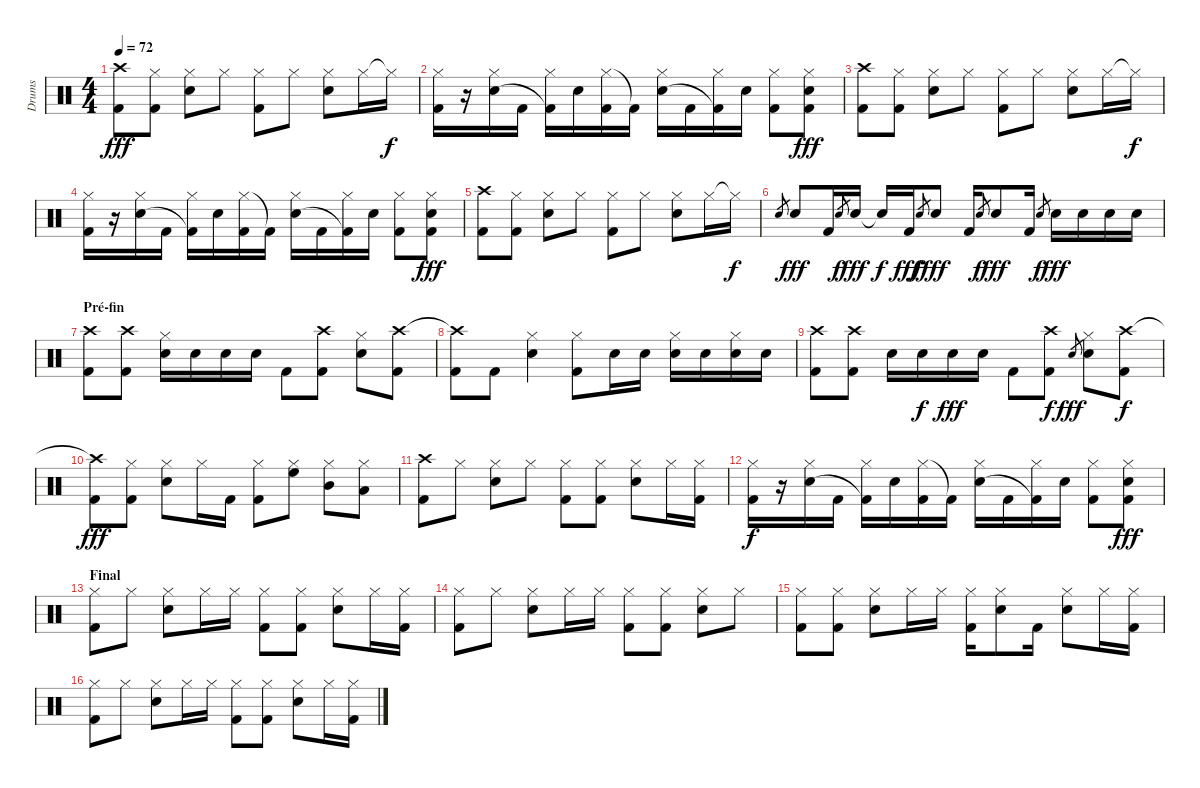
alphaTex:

\track ("Drums" "Drums") {instrument percussion}
\staff {score}
\articulation defaults
\ts (4 4)
\tempo 72
\clef neutral
\ks c
("Crash high (hit)" "Kick (hit) 2").8{dy fff} ("Hi-Hat (closed)" "Kick (hit) 2").8 ("Hi-Hat (closed)" "Snare (hit) 2").8 "Hi-Hat (closed)".8 ("Hi-Hat (closed)" "Kick (hit) 2").8 "Hi-Hat (closed)".8 ("Hi-Hat (closed)" "Snare (hit) 2").8 "Hi-Hat (closed)".16 "Hi-Hat (closed)"{t}.16{dy f} |
("Hi-Hat (closed)" "Kick (hit) 2").16 r.16 ("Hi-Hat (closed)" "Snare (hit) 2").16 "Kick (hit) 2".16 ("Hi-Hat (closed)" "Kick (hit) 2"{t}).16 "Snare (hit) 2".16 ("Hi-Hat (closed)" "Kick (hit) 2").16 "Kick (hit) 2"{t}.16 ("Hi-Hat (closed)" "Snare (hit) 2").16 "Kick (hit) 2".16 ("Hi-Hat (closed)" "Kick (hit) 2"{t}).16 "Snare (hit) 2".16 ("Hi-Hat (closed)" "Kick (hit) 2").8 ("Hi-Hat (closed)" "Snare (hit) 2" "Kick (hit) 2").8{dy fff} |
("Crash high (hit)" "Kick (hit) 2").8 ("Hi-Hat (closed)" "Kick (hit) 2").8 ("Hi-Hat (closed)" "Snare (hit) 2").8 "Hi-Hat (closed)".8 ("Hi-Hat (closed)" "Kick (hit) 2").8 "Hi-Hat (closed)".8 ("Hi-Hat (closed)" "Snare (hit) 2").8 "Hi-Hat (closed)".16 "Hi-Hat (closed)"{t}.16{dy f} |
("Hi-Hat (closed)" "Kick (hit) 2").16 r.16 ("Hi-Hat (closed)" "Snare (hit) 2").16 "Kick (hit) 2".16 ("Hi-Hat (closed)" "Kick (hit) 2"{t}).16 "Snare (hit) 2".16 ("Hi-Hat (closed)" "Kick (hit) 2").16 "Kick (hit) 2"{t}.16 ("Hi-Hat (closed)" "Snare (hit) 2").16 "Kick (hit) 2".16 ("Hi-Hat (closed)" "Kick (hit) 2"{t}).16 "Snare (hit) 2".16 ("Hi-Hat (closed)" "Kick (hit) 2").8 ("Hi-Hat (closed)" "Snare (hit) 2" "Kick (hit) 2").8{dy fff} |
("Crash high (hit)" "Kick (hit) 2").8 ("Hi-Hat (closed)" "Kick (hit) 2").8 ("Hi-Hat (closed)" "Snare (hit) 2").8 "Hi-Hat (closed)".8 ("Hi-Hat (closed)" "Kick (hit) 2").8 "Hi-Hat (closed)".8 ("Hi-Hat (closed)" "Snare (hit) 2").8 "Hi-Hat (closed)".16 "Hi-Hat (closed)"{t}.16{dy f} |
"Snare (hit) 2".8{gr} "Snare (hit) 2".8{dy fff} "Kick (hit) 2".16 "Snare (hit) 2".8{gr dy f} "Snare (hit) 2".16{dy fff} "Snare (hit) 2"{t}.16{dy f} "Kick (hit) 2".16{dy fff} "Snare (hit) 2".8{gr dy f} "Snare (hit) 2".8{dy fff} "Kick (hit) 2".16 "Snare (hit) 2".8{gr dy f} "Snare (hit) 2".8{dy fff} "Kick (hit) 2".16 "Snare (hit) 2".8{gr dy f} "Snare (hit) 2".16{dy fff} "Snare (hit) 2".16 "Snare (hit) 2".16 "Snare (hit) 2".16 |
\section ("" "Pré-fin")
("Crash high (hit)" "Kick (hit) 2").8 ("Crash high (hit)" "Kick (hit) 2").8 ("Hi-Hat (closed)" "Snare (hit) 2").16 "Snare (hit) 2".16 "Snare (hit) 2".16 "Snare (hit) 2".16 "Kick (hit) 2".8 ("Crash high (hit)" "Kick (hit) 2").8 ("Hi-Hat (closed)" "Snare (hit) 2").8 ("Crash high (hit)" "Kick (hit) 2").8 |
("Crash high (hit)"{t} "Kick (hit) 2").8 "Kick (hit) 2".8 ("Hi-Hat (closed)" "Snare (hit) 2").4 ("Hi-Hat (closed)" "Kick (hit) 2").8 "Snare (hit) 2".16 "Snare (hit) 2".16 ("Hi-Hat (closed)" "Snare (hit) 2").16 "Snare (hit) 2".16 ("Hi-Hat (closed)" "Snare (hit) 2").16 "Snare (hit) 2".16 |
("Crash high (hit)" "Kick (hit) 2").8 ("Crash high (hit)" "Kick (hit) 2").8 "Snare (hit) 2".16 "Snare (hit) 2".16{dy f} "Snare (hit) 2".16{dy fff} "Snare (hit) 2".16 "Kick (hit) 2".8 ("Crash high (hit)" "Kick (hit) 2").8{dy f} "Snare (hit) 2".8{gr dy fff} ("Hi-Hat (closed)" "Snare (hit) 2").8 ("Crash high (hit)" "Kick (hit) 2").8{dy f} |
("Crash high (hit)"{t} "Kick (hit) 2").8{dy fff} ("Hi-Hat (closed)" "Kick (hit) 2").8 ("Hi-Hat (closed)" "Snare (hit) 2").8 "Hi-Hat (closed)".16 "Kick (hit) 2".16 ("Hi-Hat (closed)" "Kick (hit) 2").8 ("Hi-Hat (closed)" "High Floor Tom (hit)").8 ("Hi-Hat (closed)" "Mid Tom (hit)").8 ("Hi-Hat (closed)" "Low Tom (hit)").8 |
("Crash high (hit)" "Kick (hit) 2").8 "Hi-Hat (closed)".8 ("Hi-Hat (closed)" "Snare (hit) 2").8 "Hi-Hat (closed)".8 ("Hi-Hat (closed)" "Kick (hit) 2").8 ("Hi-Hat (closed)" "Kick (hit) 2").8 ("Hi-Hat (closed)" "Snare (hit) 2").8 "Hi-Hat (closed)".16 ("Hi-Hat (closed)" "Kick (hit) 2").16 |
("Hi-Hat (closed)" "Kick (hit) 2").16{dy f} r.16 ("Hi-Hat (closed)" "Snare (hit) 2").16 "Kick (hit) 2".16 ("Hi-Hat (closed)" "Kick (hit) 2"{t}).16 "Snare (hit) 2".16 ("Hi-Hat (closed)" "Kick (hit) 2").16 "Kick (hit) 2"{t}.16 ("Hi-Hat (closed)" "Snare (hit) 2").16 "Kick (hit) 2".16 ("Hi-Hat (closed)" "Kick (hit) 2"{t}).16 "Snare (hit) 2".16 ("Hi-Hat (closed)" "Kick (hit) 2").8 ("Hi-Hat (closed)" "Snare (hit) 2" "Kick (hit) 2").8{dy fff} |
\section ("" "Final")
("Hi-Hat (closed)" "Kick (hit) 2").8 "Hi-Hat (closed)".8 ("Hi-Hat (closed)" "Snare (hit) 2").8 "Hi-Hat (closed)".16 "Hi-Hat (closed)".16 ("Hi-Hat (closed)" "Kick (hit) 2").8 ("Hi-Hat (closed)" "Kick (hit) 2").8 ("Hi-Hat (closed)" "Snare (hit) 2").8 "Hi-Hat (closed)".16 ("Hi-Hat (closed)" "Kick (hit) 2").16 |
("Hi-Hat (closed)" "Kick (hit) 2").8 "Hi-Hat (closed)".8 ("Hi-Hat (closed)" "Snare (hit) 2").8 "Hi-Hat (closed)".16 "Hi-Hat (closed)".16 ("Hi-Hat (closed)" "Kick (hit) 2").8 ("Hi-Hat (closed)" "Kick (hit) 2").8 ("Hi-Hat (closed)" "Snare (hit) 2").8 "Hi-Hat (closed)".8 |
("Hi-Hat (closed)" "Kick (hit) 2").8 ("Hi-Hat (closed)" "Kick (hit) 2").8 ("Hi-Hat (closed)" "Snare (hit) 2").8 "Hi-Hat (closed)".16 "Hi-Hat (closed)".16 ("Hi-Hat (closed)" "Kick (hit) 2").16 ("Hi-Hat (closed)" "Snare (hit) 2").8 "Kick (hit) 2".16 ("Hi-Hat (closed)" "Snare (hit) 2").8 "Hi-Hat (closed)".16 ("Hi-Hat (closed)" "Kick (hit) 2").16 |
("Hi-Hat (closed)" "Kick (hit) 2").8 "Hi-Hat (closed)".8 ("Hi-Hat (closed)" "Snare (hit) 2").8 "Hi-Hat (closed)".16 "Hi-Hat (closed)".16 ("Hi-Hat (closed)" "Kick (hit) 2").8 ("Hi-Hat (closed)" "Kick (hit) 2").8 ("Hi-Hat (closed)" "Snare (hit) 2").8 "Hi-Hat (closed)".16 ("Hi-Hat (closed)" "Kick (hit) 2").16
